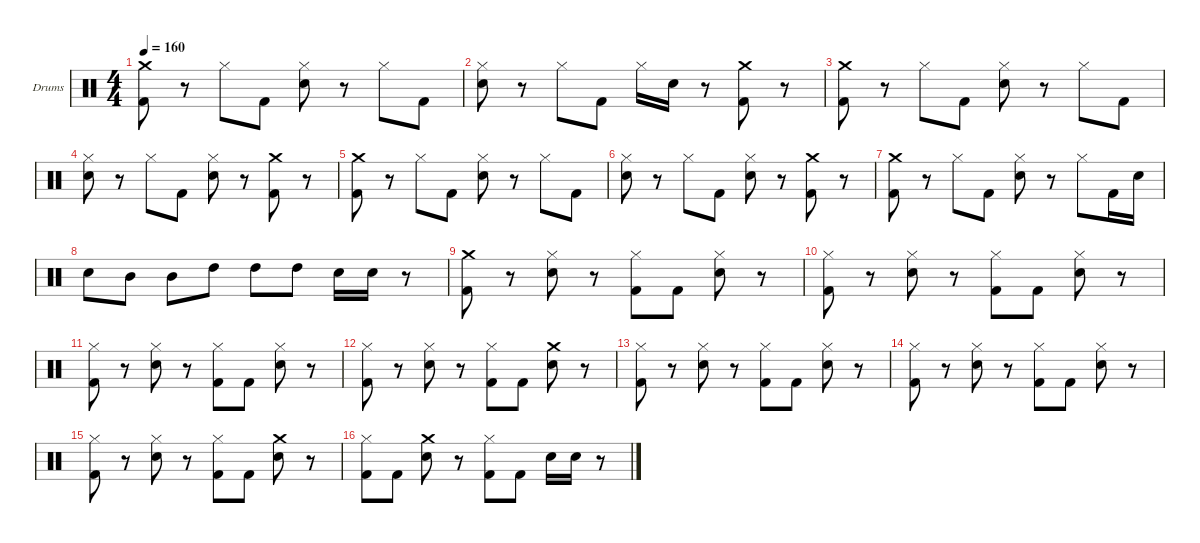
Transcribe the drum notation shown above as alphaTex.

\hideDynamics
\bracketExtendMode nobrackets
\firstSystemTrackNameOrientation horizontal
\otherSystemsTrackNameOrientation horizontal
\track ("Drumkit" "Drums") {instrument percussion}
\staff {score}
\articulation defaults
\ts (4 4)
\tempo 160
\clef neutral
\ks c
("Kick (hit) 2" "Crash medium (hit)").8{dy f} r.8 "Hi-Hat (closed)".8 "Kick (hit) 2".8 ("Snare (hit) 2" "Hi-Hat (closed)").8 r.8 "Hi-Hat (closed)".8 "Kick (hit) 2".8 |
("Hi-Hat (closed)" "Snare (hit) 2").8 r.8 "Hi-Hat (closed)".8 "Kick (hit) 2".8 "Hi-Hat (closed)".16 "Snare (hit) 2".16 r.8 ("Crash medium (hit)" "Kick (hit) 2").8 r.8 |
("Kick (hit) 2" "Crash medium (hit)").8 r.8 "Hi-Hat (closed)".8 "Kick (hit) 2".8 ("Snare (hit) 2" "Hi-Hat (closed)").8 r.8 "Hi-Hat (closed)".8 "Kick (hit) 2".8 |
("Hi-Hat (closed)" "Snare (hit) 2").8 r.8 "Hi-Hat (closed)".8 "Kick (hit) 2".8 ("Snare (hit) 2" "Hi-Hat (closed)").8 r.8 ("Crash medium (hit)" "Kick (hit) 2").8 r.8 |
("Kick (hit) 2" "Crash medium (hit)").8 r.8 "Hi-Hat (closed)".8 "Kick (hit) 2".8 ("Snare (hit) 2" "Hi-Hat (closed)").8 r.8 "Hi-Hat (closed)".8 "Kick (hit) 2".8 |
("Hi-Hat (closed)" "Snare (hit) 2").8 r.8 "Hi-Hat (closed)".8 "Kick (hit) 2".8 ("Snare (hit) 2" "Hi-Hat (closed)").8 r.8 ("Crash medium (hit)" "Kick (hit) 2").8 r.8 |
("Kick (hit) 2" "Crash medium (hit)").8 r.8 "Hi-Hat (closed)".8 "Kick (hit) 2".8 ("Snare (hit) 2" "Hi-Hat (closed)").8 r.8 "Hi-Hat (closed)".8 "Kick (hit) 2".16 "Snare (hit) 2".16 |
"Snare (hit) 2".8 "Mid Tom (hit)".8 "Mid Tom (hit)".8 "High Tom (hit)".8 "High Tom (hit)".8 "High Tom (hit)".8 "Snare (hit) 2".16 "Snare (hit) 2".16 r.8 |
("Kick (hit) 2" "Crash medium (hit)").8 r.8 ("Hi-Hat (closed)" "Snare (hit) 2").8 r.8 ("Kick (hit) 2" "Hi-Hat (closed)").8 "Kick (hit) 2".8 ("Snare (hit) 2" "Hi-Hat (closed)").8 r.8 |
("Kick (hit) 2" "Hi-Hat (closed)").8 r.8 ("Snare (hit) 2" "Hi-Hat (closed)").8 r.8 ("Kick (hit) 2" "Hi-Hat (closed)").8 "Kick (hit) 2".8 ("Snare (hit) 2" "Hi-Hat (closed)").8 r.8 |
("Kick (hit) 2" "Hi-Hat (closed)").8 r.8 ("Snare (hit) 2" "Hi-Hat (closed)").8 r.8 ("Kick (hit) 2" "Hi-Hat (closed)").8 "Kick (hit) 2".8 ("Snare (hit) 2" "Hi-Hat (closed)").8 r.8 |
("Kick (hit) 2" "Hi-Hat (closed)").8 r.8 ("Snare (hit) 2" "Hi-Hat (closed)").8 r.8 ("Kick (hit) 2" "Hi-Hat (closed)").8 "Kick (hit) 2".8 ("Crash medium (hit)" "Snare (hit) 2").8 r.8 |
("Kick (hit) 2" "Hi-Hat (closed)").8 r.8 ("Snare (hit) 2" "Hi-Hat (closed)").8 r.8 ("Kick (hit) 2" "Hi-Hat (closed)").8 "Kick (hit) 2".8 ("Snare (hit) 2" "Hi-Hat (closed)").8 r.8 |
("Kick (hit) 2" "Hi-Hat (closed)").8 r.8 ("Snare (hit) 2" "Hi-Hat (closed)").8 r.8 ("Kick (hit) 2" "Hi-Hat (closed)").8 "Kick (hit) 2".8 ("Snare (hit) 2" "Hi-Hat (closed)").8 r.8 |
("Kick (hit) 2" "Hi-Hat (closed)").8 r.8 ("Snare (hit) 2" "Hi-Hat (closed)").8 r.8 ("Kick (hit) 2" "Hi-Hat (closed)").8 "Kick (hit) 2".8 ("Crash medium (hit)" "Snare (hit) 2").8 r.8 |
("Kick (hit) 2" "Hi-Hat (closed)").8 "Kick (hit) 2".8 ("Crash medium (hit)" "Snare (hit) 2").8 r.8 ("Kick (hit) 2" "Hi-Hat (closed)").8 "Kick (hit) 2".8 "Snare (hit) 2".16 "Snare (hit) 2".16 r.8
